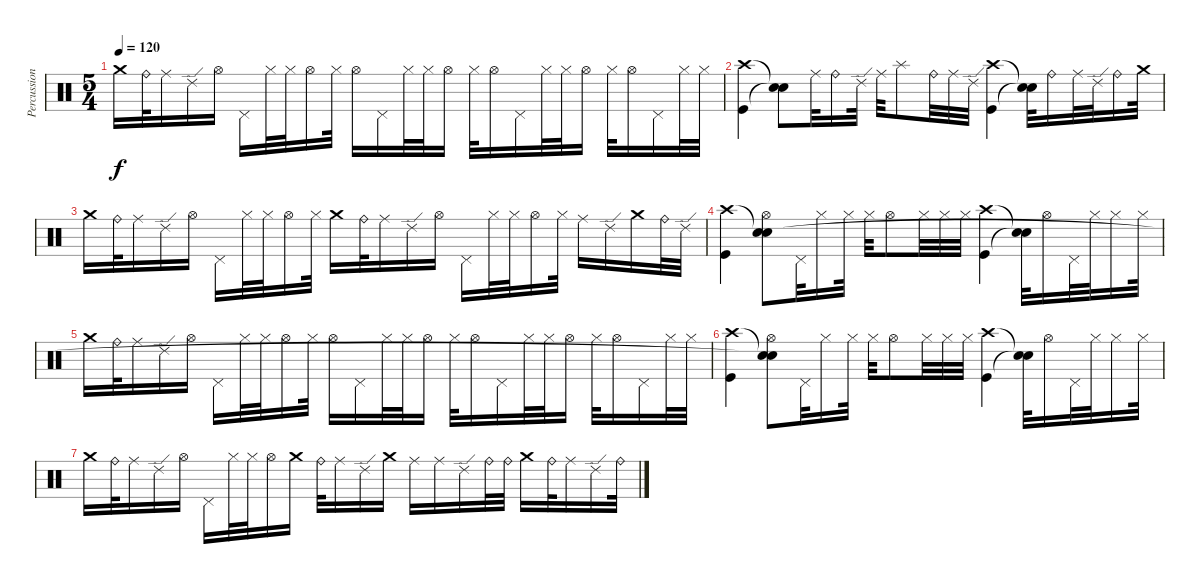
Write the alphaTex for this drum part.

\track ("Percussion" "Percussion") {instrument percussion}
\staff {score}
\articulation defaults
\ts (5 4)
\tempo 120
\clef neutral
\ks c "Crash medium (hit)".16{dy f} "Ride (bell)".32 "Ride (middle)".16 "Ride (edge) 2".16 "Hi-Hat (open)".16 "Pedal Hi-Hat (hit)".16 "Hi-Hat (closed)".32 "Hi-Hat (closed)".32 "Hi-Hat (open)".16 "Hi-Hat (closed)".32 "Hi-Hat (open)".16 "Pedal Hi-Hat (hit)".16 "Hi-Hat (closed)".32 "Hi-Hat (closed)".32 "Hi-Hat (open)".16 "Hi-Hat (closed)".32 "Hi-Hat (open)".16 "Pedal Hi-Hat (hit)".16 "Hi-Hat (closed)".32 "Hi-Hat (closed)".32 "Hi-Hat (open)".16 "Hi-Hat (closed)".32 "Hi-Hat (open)".16 "Pedal Hi-Hat (hit)".16 "Hi-Hat (closed)".32 "Hi-Hat (closed)".32
|
("Crash high (hit)" "Kick (hit)").4{volume 8} ("Snare (hit)"{t} "Snare (hit)"{t}).8 "Ride (middle)".32 "Ride (bell)".16 "Ride (edge) 2".32 "Ride (middle)".32 "Splash (hit)".8 "Ride (bell)".32 "Ride (middle)".32 "Ride (edge) 2".32 ("Crash high (hit)" "Kick (hit)").4 ("Snare (hit)"{t} "Snare (hit)"{t}).32 "Ride (bell)".16 "Ride (middle)".32 "Ride (edge) 2".32 "Ride (bell)".16 "Crash medium (hit)".32 |
"Crash medium (hit)".16 "Ride (bell)".32 "Ride (middle)".16 "Ride (edge) 2".16 "Hi-Hat (open)".16 "Pedal Hi-Hat (hit)".16 "Hi-Hat (closed)".32 "Hi-Hat (closed)".32 "Hi-Hat (open)".16 "Hi-Hat (closed)".32 "Crash medium (hit)".16 "Ride (bell)".32 "Ride (middle)".16 "Ride (edge) 2".16 "Hi-Hat (open)".16 "Pedal Hi-Hat (hit)".16 "Hi-Hat (closed)".32 "Hi-Hat (closed)".32 "Hi-Hat (open)".16 "Hi-Hat (closed)".32 "Ride (middle)".16 "Ride (edge) 2".16 "Crash medium (hit)".16 "Ride (bell)".32 "Ride (edge) 2".32 |
("Crash high (hit)" "Kick (hit)").4{volume 4} ("Snare (hit)"{t} "Hi-Hat (open)" "Snare (hit)").8 "Pedal Hi-Hat (hit)".32 "Hi-Hat (closed)".16 "Hi-Hat (closed)".32 "Hi-Hat (closed)".32 "Hi-Hat (open)".8 "Hi-Hat (closed)".32 "Hi-Hat (closed)".32 "Hi-Hat (closed)".32 ("Crash high (hit)" "Kick (hit)").4 ("Snare (hit)"{t} "Snare (hit)"{t}).32 "Hi-Hat (open)".16 "Pedal Hi-Hat (hit)".32 "Hi-Hat (closed)".32 "Hi-Hat (closed)".16 "Hi-Hat (closed)".32 |
"Crash medium (hit)".16 "Ride (bell)".32 "Ride (middle)".16 "Ride (edge) 2".16 "Hi-Hat (open)".16 "Pedal Hi-Hat (hit)".16 "Hi-Hat (closed)".32 "Hi-Hat (closed)".32 "Hi-Hat (open)".16 "Hi-Hat (closed)".32 "Hi-Hat (open)".16 "Pedal Hi-Hat (hit)".16 "Hi-Hat (closed)".32 "Hi-Hat (closed)".32 "Hi-Hat (open)".16 "Hi-Hat (closed)".32 "Hi-Hat (open)".16 "Pedal Hi-Hat (hit)".16 "Hi-Hat (closed)".32 "Hi-Hat (closed)".32 "Hi-Hat (open)".16 "Hi-Hat (closed)".32 "Hi-Hat (open)".16 "Pedal Hi-Hat (hit)".16 "Hi-Hat (closed)".32 "Hi-Hat (closed)".32 |
("Crash high (hit)" "Kick (hit)").4{volume 0} ("Snare (hit)"{t} "Hi-Hat (open)" "Snare (hit)"{t}).8 "Pedal Hi-Hat (hit)".32 "Hi-Hat (closed)".16 "Hi-Hat (closed)".32 "Hi-Hat (closed)".32 "Hi-Hat (open)".8 "Hi-Hat (closed)".32 "Hi-Hat (closed)".32 "Hi-Hat (closed)".32 ("Crash high (hit)" "Kick (hit)").4 ("Snare (hit)"{t} "Snare (hit)"{t}).32 "Hi-Hat (open)".16 "Pedal Hi-Hat (hit)".32 "Hi-Hat (closed)".32 "Hi-Hat (closed)".16 "Hi-Hat (closed)".32 |
"Crash medium (hit)".16 "Ride (bell)".32 "Ride (middle)".16 "Ride (edge) 2".16 "Hi-Hat (open)".16 "Pedal Hi-Hat (hit)".16 "Hi-Hat (closed)".32 "Hi-Hat (closed)".32 "Hi-Hat (open)".16 "Crash medium (hit)".16 "Ride (bell)".32 "Ride (middle)".16 "Ride (edge) 2".16 "Crash medium (hit)".16 "Ride (middle)".16 "Ride (middle)".16 "Ride (edge) 2".16 "Ride (bell)".32 "Ride (bell)".32 "Crash medium (hit)".16 "Ride (bell)".32 "Ride (middle)".16 "Ride (edge) 2".16 "Ride (bell)".32
